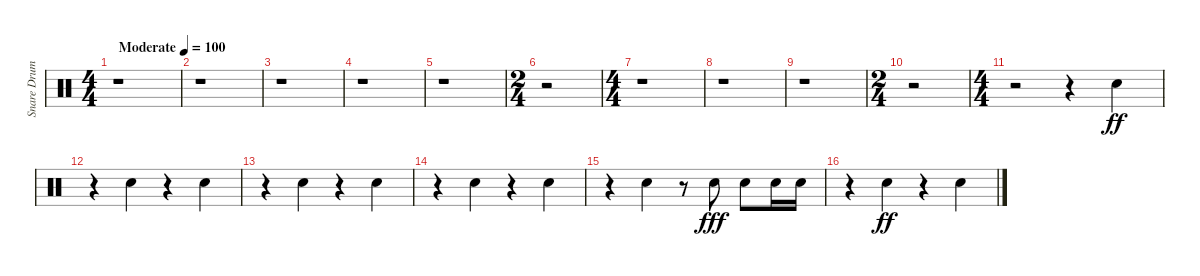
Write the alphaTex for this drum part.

\track ("Snare Drum" "Snare Drum") {instrument percussion}
\staff {score}
\articulation defaults
\ts (4 4)
\tempo (100 "Moderate")
\clef neutral
\ks aminor
r.1{dy ff} |
\ks c
r.1 |
r.1 |
r.1 |
r.1 |
\ts (2 4)
r.2 |
\ts (4 4)
r.1 |
r.1 |
r.1 |
\ts (2 4)
r.2 |
\ts (4 4)
r.2 r.4 "Electric Snare (hit)".4 |
r.4{beam merge} "Electric Snare (hit)".4 r.4{beam merge} "Electric Snare (hit)".4 |
r.4{beam merge} "Electric Snare (hit)".4 r.4{beam merge} "Electric Snare (hit)".4 |
r.4{beam merge} "Electric Snare (hit)".4 r.4{beam merge} "Electric Snare (hit)".4 |
r.4{beam merge} "Electric Snare (hit)".4 r.8 "Electric Snare (hit)".8{dy fff} "Electric Snare (hit)".8 "Electric Snare (hit)".16 "Electric Snare (hit)".16 |
r.4{beam merge} "Electric Snare (hit)".4{dy ff} r.4{beam merge} "Electric Snare (hit)".4
